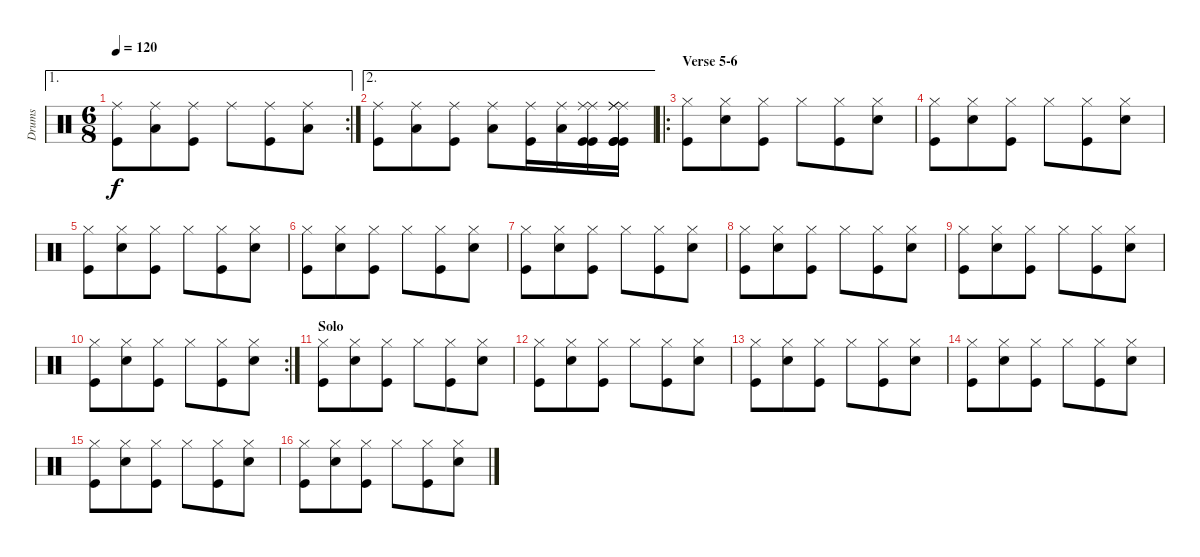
\track ("Drums" "Drums") {instrument percussion}
\staff {score}
\articulation defaults
\ae 1
\rc 2
\ts (6 8)
\tempo 120
\clef neutral
\ks c
("Ride (middle)" "Kick (hit)").8{dy f} ("Ride (middle)" "Low Tom (hit)").8 ("Ride (middle)" "Kick (hit)").8 "Ride (middle)".8 ("Ride (middle)" "Kick (hit)").8 ("Ride (middle)" "Low Tom (hit)").8 |
\ae 2
("Ride (middle)" "Kick (hit)").8 ("Ride (middle)" "Low Tom (hit)").8 ("Ride (middle)" "Kick (hit)").8 ("Ride (middle)" "Low Tom (hit)").8 ("Ride (middle)" "Kick (hit)").16 ("Ride (middle)" "Low Tom (hit)").16 ("Ride (middle)" "Ride (middle)" "Kick (hit)" "Kick (hit)").16 ("Ride (middle)" "Ride (middle)" "Ride (middle)" "Kick (hit)" "Kick (hit)" "Kick (hit)").16 |
\ro
\section ("" "Verse 5-6")
("Hi-Hat (closed)" "Kick (hit)").8 ("Hi-Hat (closed)" "Electric Snare (hit)").8 ("Hi-Hat (closed)" "Kick (hit)").8 "Hi-Hat (closed)".8 ("Hi-Hat (closed)" "Kick (hit)").8 ("Hi-Hat (closed)" "Electric Snare (hit)").8 |
("Hi-Hat (closed)" "Kick (hit)").8 ("Hi-Hat (closed)" "Electric Snare (hit)").8 ("Hi-Hat (closed)" "Kick (hit)").8 "Hi-Hat (closed)".8 ("Hi-Hat (closed)" "Kick (hit)").8 ("Hi-Hat (closed)" "Electric Snare (hit)").8 |
("Hi-Hat (closed)" "Kick (hit)").8 ("Hi-Hat (closed)" "Electric Snare (hit)").8 ("Hi-Hat (closed)" "Kick (hit)").8 "Hi-Hat (closed)".8 ("Hi-Hat (closed)" "Kick (hit)").8 ("Hi-Hat (closed)" "Electric Snare (hit)").8 |
("Hi-Hat (closed)" "Kick (hit)").8 ("Hi-Hat (closed)" "Electric Snare (hit)").8 ("Hi-Hat (closed)" "Kick (hit)").8 "Hi-Hat (closed)".8 ("Hi-Hat (closed)" "Kick (hit)").8 ("Hi-Hat (closed)" "Electric Snare (hit)").8 |
("Hi-Hat (closed)" "Kick (hit)").8 ("Hi-Hat (closed)" "Electric Snare (hit)").8 ("Hi-Hat (closed)" "Kick (hit)").8 "Hi-Hat (closed)".8 ("Hi-Hat (closed)" "Kick (hit)").8 ("Hi-Hat (closed)" "Electric Snare (hit)").8 |
("Hi-Hat (closed)" "Kick (hit)").8 ("Hi-Hat (closed)" "Electric Snare (hit)").8 ("Hi-Hat (closed)" "Kick (hit)").8 "Hi-Hat (closed)".8 ("Hi-Hat (closed)" "Kick (hit)").8 ("Hi-Hat (closed)" "Electric Snare (hit)").8 |
("Hi-Hat (closed)" "Kick (hit)").8 ("Hi-Hat (closed)" "Electric Snare (hit)").8 ("Hi-Hat (closed)" "Kick (hit)").8 "Hi-Hat (closed)".8 ("Hi-Hat (closed)" "Kick (hit)").8 ("Hi-Hat (closed)" "Electric Snare (hit)").8 |
\rc 2
("Hi-Hat (closed)" "Kick (hit)").8 ("Hi-Hat (closed)" "Electric Snare (hit)").8 ("Hi-Hat (closed)" "Kick (hit)").8 "Hi-Hat (closed)".8 ("Hi-Hat (closed)" "Kick (hit)").8 ("Hi-Hat (closed)" "Electric Snare (hit)").8 |
\section ("" "Solo")
("Hi-Hat (closed)" "Kick (hit)").8 ("Hi-Hat (closed)" "Electric Snare (hit)").8 ("Hi-Hat (closed)" "Kick (hit)").8 "Hi-Hat (closed)".8 ("Hi-Hat (closed)" "Kick (hit)").8 ("Hi-Hat (closed)" "Electric Snare (hit)").8 |
("Hi-Hat (closed)" "Kick (hit)").8 ("Hi-Hat (closed)" "Electric Snare (hit)").8 ("Hi-Hat (closed)" "Kick (hit)").8 "Hi-Hat (closed)".8 ("Hi-Hat (closed)" "Kick (hit)").8 ("Hi-Hat (closed)" "Electric Snare (hit)").8 |
("Hi-Hat (closed)" "Kick (hit)").8 ("Hi-Hat (closed)" "Electric Snare (hit)").8 ("Hi-Hat (closed)" "Kick (hit)").8 "Hi-Hat (closed)".8 ("Hi-Hat (closed)" "Kick (hit)").8 ("Hi-Hat (closed)" "Electric Snare (hit)").8 |
("Hi-Hat (closed)" "Kick (hit)").8 ("Hi-Hat (closed)" "Electric Snare (hit)").8 ("Hi-Hat (closed)" "Kick (hit)").8 "Hi-Hat (closed)".8 ("Hi-Hat (closed)" "Kick (hit)").8 ("Hi-Hat (closed)" "Electric Snare (hit)").8 |
("Hi-Hat (closed)" "Kick (hit)").8 ("Hi-Hat (closed)" "Electric Snare (hit)").8 ("Hi-Hat (closed)" "Kick (hit)").8 "Hi-Hat (closed)".8 ("Hi-Hat (closed)" "Kick (hit)").8 ("Hi-Hat (closed)" "Electric Snare (hit)").8 |
("Hi-Hat (closed)" "Kick (hit)").8 ("Hi-Hat (closed)" "Electric Snare (hit)").8 ("Hi-Hat (closed)" "Kick (hit)").8 "Hi-Hat (closed)".8 ("Hi-Hat (closed)" "Kick (hit)").8 ("Hi-Hat (closed)" "Electric Snare (hit)").8
